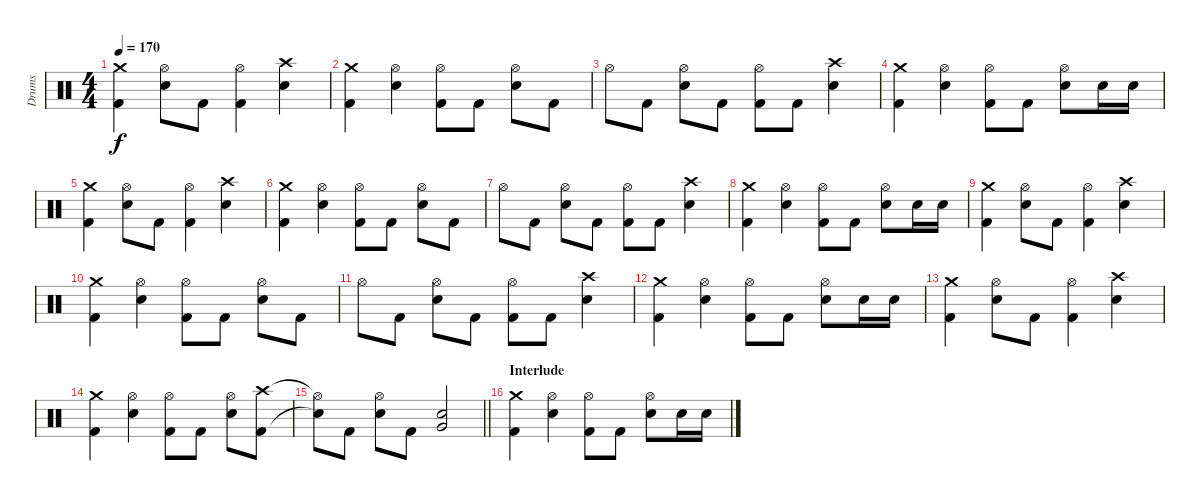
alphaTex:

\track ("Drums" "Drums") {instrument percussion}
\staff {score}
\articulation defaults
\ts (4 4)
\tempo 170
\clef neutral
\ks c
("Crash medium (hit)" "Kick (hit) 2").4{dy f} ("Hi-Hat (open)" "Electric Snare (hit)").8 "Kick (hit) 2".8 ("Hi-Hat (open)" "Kick (hit) 2").4 ("Crash high (hit)" "Electric Snare (hit)").4 |
("Crash medium (hit)" "Kick (hit) 2").4 ("Hi-Hat (open)" "Electric Snare (hit)").4 ("Hi-Hat (open)" "Kick (hit) 2").8 "Kick (hit) 2".8 ("Hi-Hat (open)" "Electric Snare (hit)").8 "Kick (hit) 2".8 |
"Hi-Hat (open)".8 "Kick (hit) 2".8 ("Hi-Hat (open)" "Electric Snare (hit)").8 "Kick (hit) 2".8 ("Hi-Hat (open)" "Kick (hit) 2").8 "Kick (hit) 2".8 ("Crash high (hit)" "Electric Snare (hit)").4 |
("Crash medium (hit)" "Kick (hit) 2").4 ("Hi-Hat (open)" "Electric Snare (hit)").4 ("Hi-Hat (open)" "Kick (hit) 2").8 "Kick (hit) 2".8 ("Hi-Hat (open)" "Electric Snare (hit)").8 "Electric Snare (hit)".16 "Electric Snare (hit)".16 |
("Crash medium (hit)" "Kick (hit) 2").4 ("Hi-Hat (open)" "Electric Snare (hit)").8 "Kick (hit) 2".8 ("Hi-Hat (open)" "Kick (hit) 2").4 ("Crash high (hit)" "Electric Snare (hit)").4 |
("Crash medium (hit)" "Kick (hit) 2").4 ("Hi-Hat (open)" "Electric Snare (hit)").4 ("Hi-Hat (open)" "Kick (hit) 2").8 "Kick (hit) 2".8 ("Hi-Hat (open)" "Electric Snare (hit)").8 "Kick (hit) 2".8 |
"Hi-Hat (open)".8 "Kick (hit) 2".8 ("Hi-Hat (open)" "Electric Snare (hit)").8 "Kick (hit) 2".8 ("Hi-Hat (open)" "Kick (hit) 2").8 "Kick (hit) 2".8 ("Crash high (hit)" "Electric Snare (hit)").4 |
("Crash medium (hit)" "Kick (hit) 2").4 ("Hi-Hat (open)" "Electric Snare (hit)").4 ("Hi-Hat (open)" "Kick (hit) 2").8 "Kick (hit) 2".8 ("Hi-Hat (open)" "Electric Snare (hit)").8 "Electric Snare (hit)".16 "Electric Snare (hit)".16 |
("Crash medium (hit)" "Kick (hit) 2").4 ("Hi-Hat (open)" "Electric Snare (hit)").8 "Kick (hit) 2".8 ("Hi-Hat (open)" "Kick (hit) 2").4 ("Crash high (hit)" "Electric Snare (hit)").4 |
("Crash medium (hit)" "Kick (hit) 2").4 ("Hi-Hat (open)" "Electric Snare (hit)").4 ("Hi-Hat (open)" "Kick (hit) 2").8 "Kick (hit) 2".8 ("Hi-Hat (open)" "Electric Snare (hit)").8 "Kick (hit) 2".8 |
"Hi-Hat (open)".8 "Kick (hit) 2".8 ("Hi-Hat (open)" "Electric Snare (hit)").8 "Kick (hit) 2".8 ("Hi-Hat (open)" "Kick (hit) 2").8 "Kick (hit) 2".8 ("Crash high (hit)" "Electric Snare (hit)").4 |
("Crash medium (hit)" "Kick (hit) 2").4 ("Hi-Hat (open)" "Electric Snare (hit)").4 ("Hi-Hat (open)" "Kick (hit) 2").8 "Kick (hit) 2".8 ("Hi-Hat (open)" "Electric Snare (hit)").8 "Electric Snare (hit)".16 "Electric Snare (hit)".16 |
("Crash medium (hit)" "Kick (hit) 2").4 ("Hi-Hat (open)" "Electric Snare (hit)").8 "Kick (hit) 2".8 ("Hi-Hat (open)" "Kick (hit) 2").4 ("Crash high (hit)" "Electric Snare (hit)").4 |
("Crash medium (hit)" "Kick (hit) 2").4 ("Hi-Hat (open)" "Electric Snare (hit)").4 ("Hi-Hat (open)" "Kick (hit) 2").8 "Kick (hit) 2".8 ("Hi-Hat (open)" "Electric Snare (hit)").8 ("Crash high (hit)" "Kick (hit) 2").8 |
\barLineRight lightlight
("Hi-Hat (open)"{t} "Snare (hit)"{t}).8 "Kick (hit) 2".8 ("Hi-Hat (open)" "Electric Snare (hit)").8 "Kick (hit) 2".8 ("Very Low Tom (hit)" "Electric Snare (hit)").2 |
\section ("" "Interlude")
("Crash medium (hit)" "Kick (hit) 2").4 ("Hi-Hat (open)" "Electric Snare (hit)").4 ("Hi-Hat (open)" "Kick (hit) 2").8 "Kick (hit) 2".8 ("Hi-Hat (open)" "Electric Snare (hit)").8 "Electric Snare (hit)".16 "Electric Snare (hit)".16
